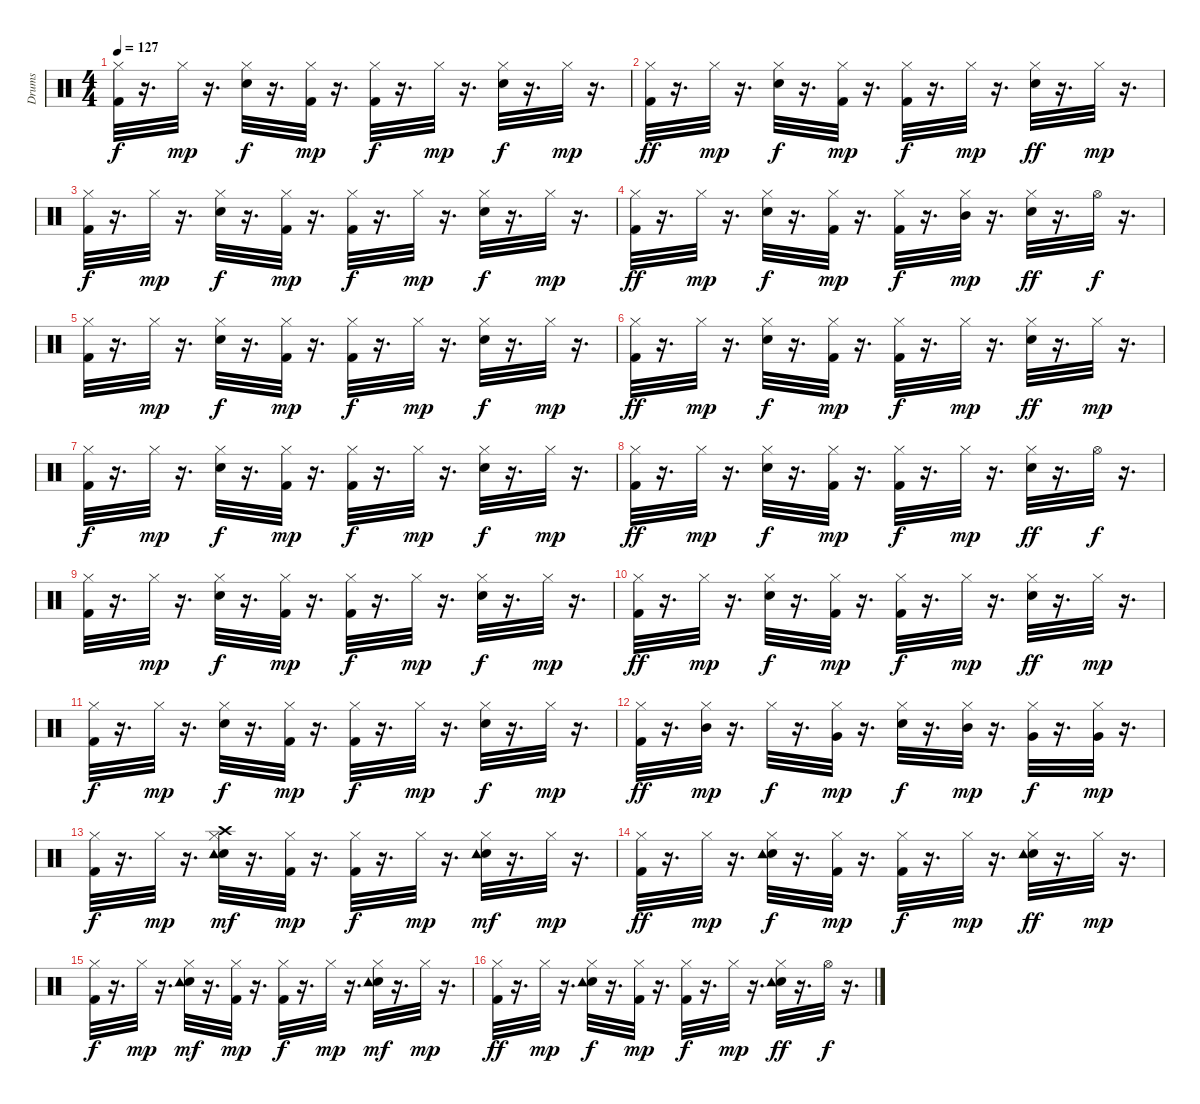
\track ("Drums               " "Drums     ") {instrument percussion}
\staff {score}
\articulation defaults
\ts (4 4)
\tempo 127
\clef neutral
\ks c
("Kick (hit) 2" "Hi-Hat (closed)").32{dy f} r.16{d} "Hi-Hat (closed)".32{dy mp} r.16{d} ("Snare (hit) 2" "Hi-Hat (closed)").32{dy f} r.16{d} ("Kick (hit) 2" "Hi-Hat (closed)").32{dy mp} r.16{d} ("Kick (hit) 2" "Hi-Hat (closed)").32{dy f} r.16{d} "Hi-Hat (closed)".32{dy mp} r.16{d} ("Snare (hit) 2" "Hi-Hat (closed)").32{dy f} r.16{d} "Hi-Hat (closed)".32{dy mp} r.16{d} |
("Kick (hit) 2" "Hi-Hat (closed)").32{dy ff} r.16{d} "Hi-Hat (closed)".32{dy mp} r.16{d} ("Hi-Hat (closed)" "Snare (hit) 2").32{dy f} r.16{d} ("Kick (hit) 2" "Hi-Hat (closed)").32{dy mp} r.16{d} ("Kick (hit) 2" "Hi-Hat (closed)").32{dy f} r.16{d} "Hi-Hat (closed)".32{dy mp} r.16{d} ("Snare (hit) 2" "Hi-Hat (closed)").32{dy ff} r.16{d} "Hi-Hat (closed)".32{dy mp} r.16{d} |
("Kick (hit) 2" "Hi-Hat (closed)").32{dy f} r.16{d} "Hi-Hat (closed)".32{dy mp} r.16{d} ("Snare (hit) 2" "Hi-Hat (closed)").32{dy f} r.16{d} ("Kick (hit) 2" "Hi-Hat (closed)").32{dy mp} r.16{d} ("Kick (hit) 2" "Hi-Hat (closed)").32{dy f} r.16{d} "Hi-Hat (closed)".32{dy mp} r.16{d} ("Snare (hit) 2" "Hi-Hat (closed)").32{dy f} r.16{d} "Hi-Hat (closed)".32{dy mp} r.16{d} |
("Kick (hit) 2" "Hi-Hat (closed)").32{dy ff} r.16{d} "Hi-Hat (closed)".32{dy mp} r.16{d} ("Snare (hit) 2" "Hi-Hat (closed)").32{dy f} r.16{d} ("Kick (hit) 2" "Hi-Hat (closed)").32{dy mp} r.16{d} ("Kick (hit) 2" "Hi-Hat (closed)").32{dy f} r.16{d} ("Hi-Hat (closed)" "Mid Tom (hit)").32{dy mp} r.16{d} ("Snare (hit) 2" "Hi-Hat (closed)").32{dy ff} r.16{d} "Hi-Hat (open)".32{dy f} r.16{d} |
("Hi-Hat (closed)" "Kick (hit) 2").32 r.16{d} "Hi-Hat (closed)".32{dy mp} r.16{d} ("Snare (hit) 2" "Hi-Hat (closed)").32{dy f} r.16{d} ("Kick (hit) 2" "Hi-Hat (closed)").32{dy mp} r.16{d} ("Kick (hit) 2" "Hi-Hat (closed)").32{dy f} r.16{d} "Hi-Hat (closed)".32{dy mp} r.16{d} ("Snare (hit) 2" "Hi-Hat (closed)").32{dy f} r.16{d} "Hi-Hat (closed)".32{dy mp} r.16{d} |
("Kick (hit) 2" "Hi-Hat (closed)").32{dy ff} r.16{d} "Hi-Hat (closed)".32{dy mp} r.16{d} ("Snare (hit) 2" "Hi-Hat (closed)").32{dy f} r.16{d} ("Hi-Hat (closed)" "Kick (hit) 2").32{dy mp} r.16{d} ("Kick (hit) 2" "Hi-Hat (closed)").32{dy f} r.16{d} "Hi-Hat (closed)".32{dy mp} r.16{d} ("Snare (hit) 2" "Hi-Hat (closed)").32{dy ff} r.16{d} "Hi-Hat (closed)".32{dy mp} r.16{d} |
("Kick (hit) 2" "Hi-Hat (closed)").32{dy f} r.16{d} "Hi-Hat (closed)".32{dy mp} r.16{d} ("Snare (hit) 2" "Hi-Hat (closed)").32{dy f} r.16{d} ("Kick (hit) 2" "Hi-Hat (closed)").32{dy mp} r.16{d} ("Kick (hit) 2" "Hi-Hat (closed)").32{dy f} r.16{d} "Hi-Hat (closed)".32{dy mp} r.16{d} ("Hi-Hat (closed)" "Snare (hit) 2").32{dy f} r.16{d} "Hi-Hat (closed)".32{dy mp} r.16{d} |
("Kick (hit) 2" "Hi-Hat (closed)").32{dy ff} r.16{d} "Hi-Hat (closed)".32{dy mp} r.16{d} ("Snare (hit) 2" "Hi-Hat (closed)").32{dy f} r.16{d} ("Kick (hit) 2" "Hi-Hat (closed)").32{dy mp} r.16{d} ("Kick (hit) 2" "Hi-Hat (closed)").32{dy f} r.16{d} "Hi-Hat (closed)".32{dy mp} r.16{d} ("Snare (hit) 2" "Hi-Hat (closed)").32{dy ff} r.16{d} "Hi-Hat (open)".32{dy f} r.16{d} |
("Kick (hit) 2" "Hi-Hat (closed)").32 r.16{d} "Hi-Hat (closed)".32{dy mp} r.16{d} ("Snare (hit) 2" "Hi-Hat (closed)").32{dy f} r.16{d} ("Kick (hit) 2" "Hi-Hat (closed)").32{dy mp} r.16{d} ("Kick (hit) 2" "Hi-Hat (closed)").32{dy f} r.16{d} "Hi-Hat (closed)".32{dy mp} r.16{d} ("Snare (hit) 2" "Hi-Hat (closed)").32{dy f} r.16{d} "Hi-Hat (closed)".32{dy mp} r.16{d} |
("Kick (hit) 2" "Hi-Hat (closed)").32{dy ff} r.16{d} "Hi-Hat (closed)".32{dy mp} r.16{d} ("Snare (hit) 2" "Hi-Hat (closed)").32{dy f} r.16{d} ("Kick (hit) 2" "Hi-Hat (closed)").32{dy mp} r.16{d} ("Hi-Hat (closed)" "Kick (hit) 2").32{dy f} r.16{d} "Hi-Hat (closed)".32{dy mp} r.16{d} ("Snare (hit) 2" "Hi-Hat (closed)").32{dy ff} r.16{d} "Hi-Hat (closed)".32{dy mp} r.16{d} |
("Kick (hit) 2" "Hi-Hat (closed)").32{dy f} r.16{d} "Hi-Hat (closed)".32{dy mp} r.16{d} ("Snare (hit) 2" "Hi-Hat (closed)").32{dy f} r.16{d} ("Kick (hit) 2" "Hi-Hat (closed)").32{dy mp} r.16{d} ("Kick (hit) 2" "Hi-Hat (closed)").32{dy f} r.16{d} "Hi-Hat (closed)".32{dy mp} r.16{d} ("Snare (hit) 2" "Hi-Hat (closed)").32{dy f} r.16{d} "Hi-Hat (closed)".32{dy mp} r.16{d} |
("Kick (hit) 2" "Hi-Hat (closed)").32{dy ff} r.16{d} ("Mid Tom (hit)" "Hi-Hat (closed)").32{dy mp} r.16{d} "Hi-Hat (closed)".32{dy f} r.16{d} ("Very Low Tom (hit)" "Hi-Hat (closed)").32{dy mp} r.16{d} ("Snare (hit) 2" "Hi-Hat (closed)").32{dy f} r.16{d} ("Mid Tom (hit)" "Hi-Hat (closed)").32{dy mp} r.16{d} ("Very Low Tom (hit)" "Hi-Hat (closed)").32{dy f} r.16{d} ("Hi-Hat (closed)" "Very Low Tom (hit)").32{dy mp} r.16{d} |
("Kick (hit) 2" "Hi-Hat (closed)").32{dy f} r.16{d} "Hi-Hat (closed)".32{dy mp} r.16{d} ("Hi-Hat (closed)" "Snare (hit) 2" "Crash high (hit)" "Tambourine (hit)").32{dy mf} r.16{d} ("Kick (hit) 2" "Hi-Hat (closed)").32{dy mp} r.16{d} ("Kick (hit) 2" "Hi-Hat (closed)").32{dy f} r.16{d} "Hi-Hat (closed)".32{dy mp} r.16{d} ("Snare (hit) 2" "Tambourine (hit)" "Hi-Hat (closed)").32{dy mf} r.16{d} "Hi-Hat (closed)".32{dy mp} r.16{d} |
("Kick (hit) 2" "Hi-Hat (closed)").32{dy ff} r.16{d} "Hi-Hat (closed)".32{dy mp} r.16{d} ("Snare (hit) 2" "Hi-Hat (closed)" "Tambourine (hit)").32{dy f} r.16{d} ("Kick (hit) 2" "Hi-Hat (closed)").32{dy mp} r.16{d} ("Kick (hit) 2" "Hi-Hat (closed)").32{dy f} r.16{d} "Hi-Hat (closed)".32{dy mp} r.16{d} ("Snare (hit) 2" "Tambourine (hit)" "Hi-Hat (closed)").32{dy ff} r.16{d} "Hi-Hat (closed)".32{dy mp} r.16{d} |
("Kick (hit) 2" "Hi-Hat (closed)").32{dy f} r.16{d} "Hi-Hat (closed)".32{dy mp} r.16{d} ("Snare (hit) 2" "Tambourine (hit)" "Hi-Hat (closed)").32{dy mf} r.16{d} ("Kick (hit) 2" "Hi-Hat (closed)").32{dy mp} r.16{d} ("Kick (hit) 2" "Hi-Hat (closed)").32{dy f} r.16{d} "Hi-Hat (closed)".32{dy mp} r.16{d} ("Snare (hit) 2" "Tambourine (hit)" "Hi-Hat (closed)").32{dy mf} r.16{d} "Hi-Hat (closed)".32{dy mp} r.16{d} |
("Hi-Hat (closed)" "Kick (hit) 2").32{dy ff} r.16{d} "Hi-Hat (closed)".32{dy mp} r.16{d} ("Snare (hit) 2" "Tambourine (hit)" "Hi-Hat (closed)").32{dy f} r.16{d} ("Kick (hit) 2" "Hi-Hat (closed)").32{dy mp} r.16{d} ("Kick (hit) 2" "Hi-Hat (closed)").32{dy f} r.16{d} "Hi-Hat (closed)".32{dy mp} r.16{d} ("Snare (hit) 2" "Tambourine (hit)" "Hi-Hat (closed)").32{dy ff} r.16{d} "Hi-Hat (open)".32{dy f} r.16{d}
